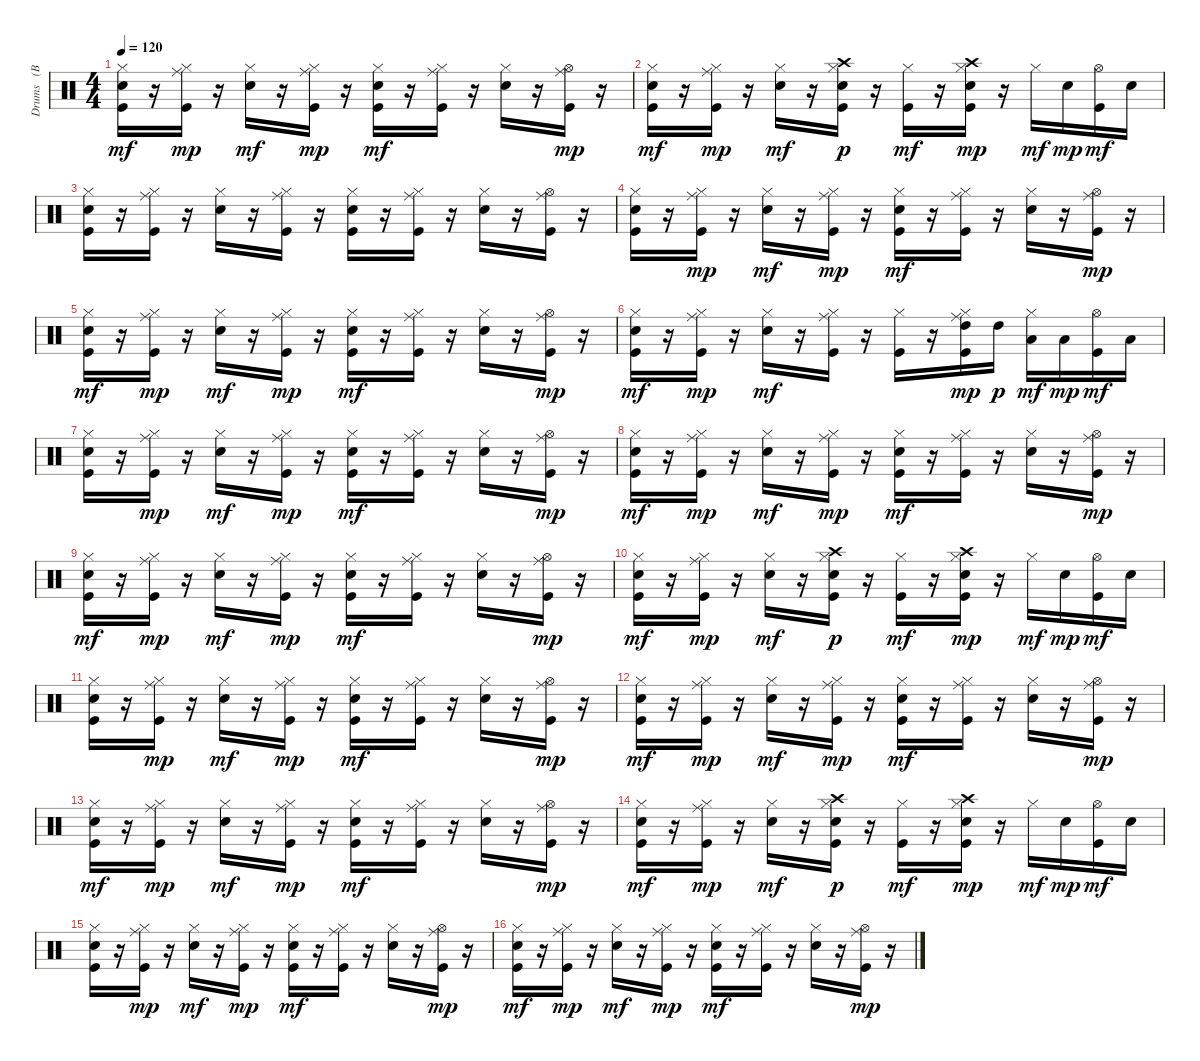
\track ("Drums   (BB)" "Drums   (B") {instrument percussion}
\staff {score}
\articulation defaults
\ts (4 4)
\tempo 120
\clef neutral
\ks c
("Kick (hit)" "Electric Snare (hit)" "Hi-Hat (closed)").16{dy mf} r.16 ("Kick (hit)" "Hi-Hat (closed)" "Ride (middle)").16{dy mp} r.16 ("Electric Snare (hit)" "Hi-Hat (closed)").16{dy mf} r.16 ("Kick (hit)" "Hi-Hat (closed)" "Ride (middle)").16{dy mp} r.16 ("Kick (hit)" "Electric Snare (hit)" "Hi-Hat (closed)").16{dy mf} r.16 ("Kick (hit)" "Hi-Hat (closed)" "Ride (middle)").16 r.16 ("Electric Snare (hit)" "Hi-Hat (closed)").16 r.16 ("Kick (hit)" "Hi-Hat (open)" "Ride (middle)").16{dy mp} r.16 |
("Kick (hit)" "Electric Snare (hit)" "Hi-Hat (closed)").16{dy mf} r.16 ("Kick (hit)" "Hi-Hat (closed)" "Ride (middle)").16{dy mp} r.16 ("Electric Snare (hit)" "Hi-Hat (closed)").16{dy mf} r.16 ("Kick (hit)" "Electric Snare (hit)" "Hi-Hat (closed)" "Crash high (hit)").16{dy p} r.16 ("Kick (hit)" "Hi-Hat (closed)").16{dy mf} r.16 ("Kick (hit)" "Electric Snare (hit)" "Hi-Hat (closed)" "Crash high (hit)").16{dy mp} r.16 "Hi-Hat (closed)".16{dy mf} "Electric Snare (hit)".16{dy mp} ("Kick (hit)" "Hi-Hat (open)").16{dy mf} "Electric Snare (hit)".16 |
("Kick (hit)" "Electric Snare (hit)" "Hi-Hat (closed)").16 r.16 ("Kick (hit)" "Hi-Hat (closed)" "Ride (middle)").16 r.16 ("Electric Snare (hit)" "Hi-Hat (closed)").16 r.16 ("Kick (hit)" "Hi-Hat (closed)" "Ride (middle)").16 r.16 ("Kick (hit)" "Electric Snare (hit)" "Hi-Hat (closed)").16 r.16 ("Kick (hit)" "Hi-Hat (closed)" "Ride (middle)").16 r.16 ("Electric Snare (hit)" "Hi-Hat (closed)").16 r.16 ("Kick (hit)" "Hi-Hat (open)" "Ride (middle)").16 r.16 |
("Kick (hit)" "Electric Snare (hit)" "Hi-Hat (closed)").16 r.16 ("Kick (hit)" "Hi-Hat (closed)" "Ride (middle)").16{dy mp} r.16 ("Electric Snare (hit)" "Hi-Hat (closed)").16{dy mf} r.16 ("Kick (hit)" "Hi-Hat (closed)" "Ride (middle)").16{dy mp} r.16 ("Kick (hit)" "Electric Snare (hit)" "Hi-Hat (closed)").16{dy mf} r.16 ("Kick (hit)" "Hi-Hat (closed)" "Ride (middle)").16 r.16 ("Electric Snare (hit)" "Hi-Hat (closed)").16 r.16 ("Kick (hit)" "Hi-Hat (open)" "Ride (middle)").16{dy mp} r.16 |
("Kick (hit)" "Electric Snare (hit)" "Hi-Hat (closed)").16{dy mf} r.16 ("Kick (hit)" "Hi-Hat (closed)" "Ride (middle)").16{dy mp} r.16 ("Electric Snare (hit)" "Hi-Hat (closed)").16{dy mf} r.16 ("Kick (hit)" "Hi-Hat (closed)" "Ride (middle)").16{dy mp} r.16 ("Kick (hit)" "Electric Snare (hit)" "Hi-Hat (closed)").16{dy mf} r.16 ("Kick (hit)" "Hi-Hat (closed)" "Ride (middle)").16 r.16 ("Electric Snare (hit)" "Hi-Hat (closed)").16 r.16 ("Kick (hit)" "Hi-Hat (open)" "Ride (middle)").16{dy mp} r.16 |
("Kick (hit)" "Electric Snare (hit)" "Hi-Hat (closed)").16{dy mf} r.16 ("Kick (hit)" "Hi-Hat (closed)" "Ride (middle)").16{dy mp} r.16 ("Electric Snare (hit)" "Hi-Hat (closed)").16{dy mf} r.16 ("Kick (hit)" "Hi-Hat (closed)" "Ride (middle)").16 r.16 ("Kick (hit)" "Hi-Hat (closed)").16 r.16 ("Kick (hit)" "Hi-Hat (closed)" "Ride (middle)" "High Tom (hit)").16{dy mp} "High Tom (hit)".16{dy p} ("Hi-Hat (closed)" "Low Tom (hit)").16{dy mf} "Low Tom (hit)".16{dy mp} ("Kick (hit)" "Hi-Hat (open)").16{dy mf} "Low Tom (hit)".16 |
("Kick (hit)" "Electric Snare (hit)" "Hi-Hat (closed)").16 r.16 ("Kick (hit)" "Hi-Hat (closed)" "Ride (middle)").16{dy mp} r.16 ("Electric Snare (hit)" "Hi-Hat (closed)").16{dy mf} r.16 ("Kick (hit)" "Hi-Hat (closed)" "Ride (middle)").16{dy mp} r.16 ("Kick (hit)" "Electric Snare (hit)" "Hi-Hat (closed)").16{dy mf} r.16 ("Kick (hit)" "Hi-Hat (closed)" "Ride (middle)").16 r.16 ("Electric Snare (hit)" "Hi-Hat (closed)").16 r.16 ("Kick (hit)" "Hi-Hat (open)" "Ride (middle)").16{dy mp} r.16 |
("Kick (hit)" "Electric Snare (hit)" "Hi-Hat (closed)").16{dy mf} r.16 ("Kick (hit)" "Hi-Hat (closed)" "Ride (middle)").16{dy mp} r.16 ("Electric Snare (hit)" "Hi-Hat (closed)").16{dy mf} r.16 ("Kick (hit)" "Hi-Hat (closed)" "Ride (middle)").16{dy mp} r.16 ("Kick (hit)" "Electric Snare (hit)" "Hi-Hat (closed)").16{dy mf} r.16 ("Kick (hit)" "Hi-Hat (closed)" "Ride (middle)").16 r.16 ("Electric Snare (hit)" "Hi-Hat (closed)").16 r.16 ("Kick (hit)" "Hi-Hat (open)" "Ride (middle)").16{dy mp} r.16 |
("Kick (hit)" "Electric Snare (hit)" "Hi-Hat (closed)").16{dy mf} r.16 ("Kick (hit)" "Hi-Hat (closed)" "Ride (middle)").16{dy mp} r.16 ("Electric Snare (hit)" "Hi-Hat (closed)").16{dy mf} r.16 ("Kick (hit)" "Hi-Hat (closed)" "Ride (middle)").16{dy mp} r.16 ("Kick (hit)" "Electric Snare (hit)" "Hi-Hat (closed)").16{dy mf} r.16 ("Kick (hit)" "Hi-Hat (closed)" "Ride (middle)").16 r.16 ("Electric Snare (hit)" "Hi-Hat (closed)").16 r.16 ("Kick (hit)" "Hi-Hat (open)" "Ride (middle)").16{dy mp} r.16 |
("Kick (hit)" "Electric Snare (hit)" "Hi-Hat (closed)").16{dy mf} r.16 ("Kick (hit)" "Hi-Hat (closed)" "Ride (middle)").16{dy mp} r.16 ("Electric Snare (hit)" "Hi-Hat (closed)").16{dy mf} r.16 ("Kick (hit)" "Electric Snare (hit)" "Hi-Hat (closed)" "Crash high (hit)").16{dy p} r.16 ("Kick (hit)" "Hi-Hat (closed)").16{dy mf} r.16 ("Kick (hit)" "Electric Snare (hit)" "Hi-Hat (closed)" "Crash high (hit)").16{dy mp} r.16 "Hi-Hat (closed)".16{dy mf} "Electric Snare (hit)".16{dy mp} ("Kick (hit)" "Hi-Hat (open)").16{dy mf} "Electric Snare (hit)".16 |
("Kick (hit)" "Electric Snare (hit)" "Hi-Hat (closed)").16 r.16 ("Kick (hit)" "Hi-Hat (closed)" "Ride (middle)").16{dy mp} r.16 ("Electric Snare (hit)" "Hi-Hat (closed)").16{dy mf} r.16 ("Kick (hit)" "Hi-Hat (closed)" "Ride (middle)").16{dy mp} r.16 ("Kick (hit)" "Electric Snare (hit)" "Hi-Hat (closed)").16{dy mf} r.16 ("Kick (hit)" "Hi-Hat (closed)" "Ride (middle)").16 r.16 ("Electric Snare (hit)" "Hi-Hat (closed)").16 r.16 ("Kick (hit)" "Hi-Hat (open)" "Ride (middle)").16{dy mp} r.16 |
("Kick (hit)" "Electric Snare (hit)" "Hi-Hat (closed)").16{dy mf} r.16 ("Kick (hit)" "Hi-Hat (closed)" "Ride (middle)").16{dy mp} r.16 ("Electric Snare (hit)" "Hi-Hat (closed)").16{dy mf} r.16 ("Kick (hit)" "Hi-Hat (closed)" "Ride (middle)").16{dy mp} r.16 ("Kick (hit)" "Electric Snare (hit)" "Hi-Hat (closed)").16{dy mf} r.16 ("Kick (hit)" "Hi-Hat (closed)" "Ride (middle)").16 r.16 ("Electric Snare (hit)" "Hi-Hat (closed)").16 r.16 ("Kick (hit)" "Hi-Hat (open)" "Ride (middle)").16{dy mp} r.16 |
("Kick (hit)" "Electric Snare (hit)" "Hi-Hat (closed)").16{dy mf} r.16 ("Kick (hit)" "Hi-Hat (closed)" "Ride (middle)").16{dy mp} r.16 ("Electric Snare (hit)" "Hi-Hat (closed)").16{dy mf} r.16 ("Kick (hit)" "Hi-Hat (closed)" "Ride (middle)").16{dy mp} r.16 ("Kick (hit)" "Electric Snare (hit)" "Hi-Hat (closed)").16{dy mf} r.16 ("Kick (hit)" "Hi-Hat (closed)" "Ride (middle)").16 r.16 ("Electric Snare (hit)" "Hi-Hat (closed)").16 r.16 ("Kick (hit)" "Hi-Hat (open)" "Ride (middle)").16{dy mp} r.16 |
("Kick (hit)" "Electric Snare (hit)" "Hi-Hat (closed)").16{dy mf} r.16 ("Kick (hit)" "Hi-Hat (closed)" "Ride (middle)").16{dy mp} r.16 ("Electric Snare (hit)" "Hi-Hat (closed)").16{dy mf} r.16 ("Kick (hit)" "Electric Snare (hit)" "Hi-Hat (closed)" "Crash high (hit)").16{dy p} r.16 ("Kick (hit)" "Hi-Hat (closed)").16{dy mf} r.16 ("Kick (hit)" "Electric Snare (hit)" "Hi-Hat (closed)" "Crash high (hit)").16{dy mp} r.16 "Hi-Hat (closed)".16{dy mf} "Electric Snare (hit)".16{dy mp} ("Kick (hit)" "Hi-Hat (open)").16{dy mf} "Electric Snare (hit)".16 |
("Kick (hit)" "Electric Snare (hit)" "Hi-Hat (closed)").16 r.16 ("Kick (hit)" "Hi-Hat (closed)" "Ride (middle)").16{dy mp} r.16 ("Electric Snare (hit)" "Hi-Hat (closed)").16{dy mf} r.16 ("Kick (hit)" "Hi-Hat (closed)" "Ride (middle)").16{dy mp} r.16 ("Kick (hit)" "Electric Snare (hit)" "Hi-Hat (closed)").16{dy mf} r.16 ("Kick (hit)" "Hi-Hat (closed)" "Ride (middle)").16 r.16 ("Electric Snare (hit)" "Hi-Hat (closed)").16 r.16 ("Kick (hit)" "Hi-Hat (open)" "Ride (middle)").16{dy mp} r.16 |
("Kick (hit)" "Electric Snare (hit)" "Hi-Hat (closed)").16{dy mf} r.16 ("Kick (hit)" "Hi-Hat (closed)" "Ride (middle)").16{dy mp} r.16 ("Electric Snare (hit)" "Hi-Hat (closed)").16{dy mf} r.16 ("Kick (hit)" "Hi-Hat (closed)" "Ride (middle)").16{dy mp} r.16 ("Kick (hit)" "Electric Snare (hit)" "Hi-Hat (closed)").16{dy mf} r.16 ("Kick (hit)" "Hi-Hat (closed)" "Ride (middle)").16 r.16 ("Electric Snare (hit)" "Hi-Hat (closed)").16 r.16 ("Kick (hit)" "Hi-Hat (open)" "Ride (middle)").16{dy mp} r.16
